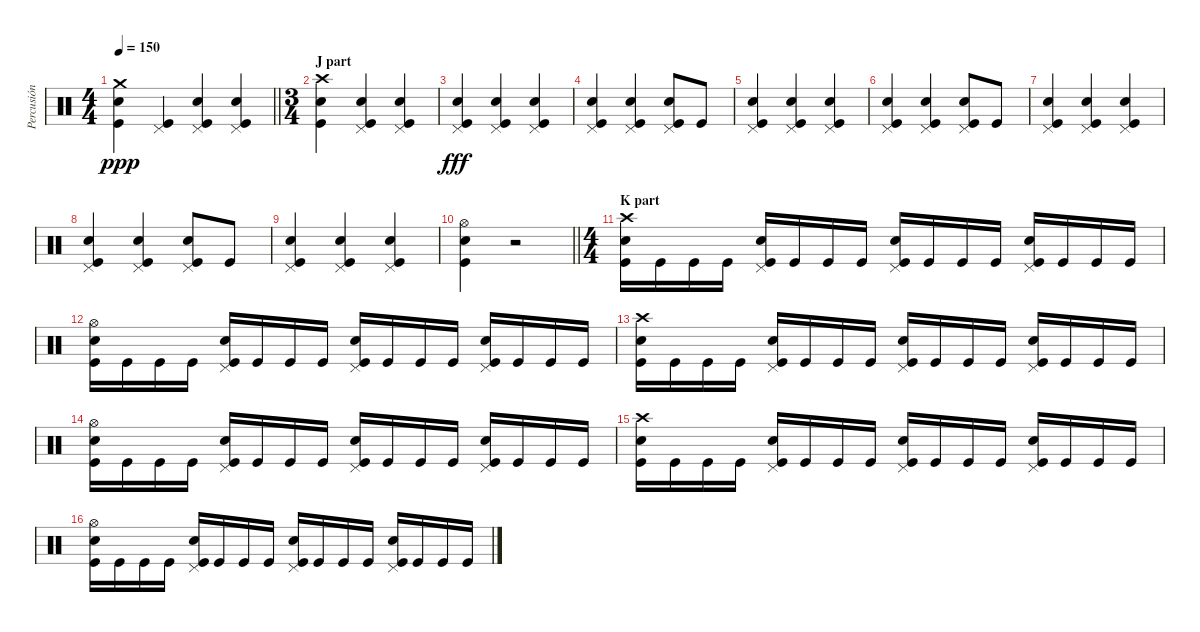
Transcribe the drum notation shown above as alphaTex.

\track ("Percusión" "Percusión") {instrument percussion}
\staff {score}
\articulation defaults
\ts (4 4)
\tempo 150
\clef neutral
\barLineRight lightlight
\ks c
("Crash medium (hit)" "Electric Snare (hit)" "Kick (hit)").4{dy ppp} ("Pedal Hi-Hat (hit)" "Kick (hit)").4 ("Pedal Hi-Hat (hit)" "Electric Snare (hit)" "Kick (hit)").4 ("Pedal Hi-Hat (hit)" "Electric Snare (hit)" "Kick (hit)").4 |
\ts (3 4)
\section ("" "J part")
("Crash high (hit)" "Electric Snare (hit)" "Kick (hit)").4 ("Pedal Hi-Hat (hit)" "Electric Snare (hit)" "Kick (hit)").4 ("Pedal Hi-Hat (hit)" "Electric Snare (hit)" "Kick (hit)").4 |
("Pedal Hi-Hat (hit)" "Electric Snare (hit)" "Kick (hit)").4{dy fff} ("Pedal Hi-Hat (hit)" "Electric Snare (hit)" "Kick (hit)").4 ("Pedal Hi-Hat (hit)" "Electric Snare (hit)" "Kick (hit)").4 |
("Pedal Hi-Hat (hit)" "Electric Snare (hit)" "Kick (hit)").4 ("Pedal Hi-Hat (hit)" "Electric Snare (hit)" "Kick (hit)").4 ("Pedal Hi-Hat (hit)" "Electric Snare (hit)" "Kick (hit)").8 "Kick (hit)".8 |
("Pedal Hi-Hat (hit)" "Electric Snare (hit)" "Kick (hit)").4 ("Pedal Hi-Hat (hit)" "Electric Snare (hit)" "Kick (hit)").4 ("Pedal Hi-Hat (hit)" "Electric Snare (hit)" "Kick (hit)").4 |
("Pedal Hi-Hat (hit)" "Electric Snare (hit)" "Kick (hit)").4 ("Pedal Hi-Hat (hit)" "Electric Snare (hit)" "Kick (hit)").4 ("Pedal Hi-Hat (hit)" "Electric Snare (hit)" "Kick (hit)").8 "Kick (hit)".8 |
("Pedal Hi-Hat (hit)" "Electric Snare (hit)" "Kick (hit)").4 ("Pedal Hi-Hat (hit)" "Electric Snare (hit)" "Kick (hit)").4 ("Pedal Hi-Hat (hit)" "Electric Snare (hit)" "Kick (hit)").4 |
("Pedal Hi-Hat (hit)" "Electric Snare (hit)" "Kick (hit)").4 ("Pedal Hi-Hat (hit)" "Electric Snare (hit)" "Kick (hit)").4 ("Pedal Hi-Hat (hit)" "Electric Snare (hit)" "Kick (hit)").8 "Kick (hit)".8 |
("Pedal Hi-Hat (hit)" "Electric Snare (hit)" "Kick (hit)").4 ("Pedal Hi-Hat (hit)" "Electric Snare (hit)" "Kick (hit)").4 ("Pedal Hi-Hat (hit)" "Electric Snare (hit)" "Kick (hit)").4 |
\barLineRight lightlight
("Hi-Hat (open)" "Electric Snare (hit)" "Kick (hit)").4 r.2{volume 0} |
\ts (4 4)
\section ("" "K part")
("Crash high (hit)" "Electric Snare (hit)" "Kick (hit)").16{volume 16} "Kick (hit)".16 "Kick (hit)".16 "Kick (hit)".16 ("Pedal Hi-Hat (hit)" "Electric Snare (hit)" "Kick (hit)").16 "Kick (hit)".16 "Kick (hit)".16 "Kick (hit)".16 ("Pedal Hi-Hat (hit)" "Electric Snare (hit)" "Kick (hit)").16 "Kick (hit)".16 "Kick (hit)".16 "Kick (hit)".16 ("Pedal Hi-Hat (hit)" "Electric Snare (hit)" "Kick (hit)").16 "Kick (hit)".16 "Kick (hit)".16 "Kick (hit)".16 |
("Hi-Hat (open)" "Electric Snare (hit)" "Kick (hit)").16 "Kick (hit)".16 "Kick (hit)".16 "Kick (hit)".16 ("Pedal Hi-Hat (hit)" "Electric Snare (hit)" "Kick (hit)").16 "Kick (hit)".16 "Kick (hit)".16 "Kick (hit)".16 ("Pedal Hi-Hat (hit)" "Electric Snare (hit)" "Kick (hit)").16 "Kick (hit)".16 "Kick (hit)".16 "Kick (hit)".16 ("Pedal Hi-Hat (hit)" "Electric Snare (hit)" "Kick (hit)").16 "Kick (hit)".16 "Kick (hit)".16 "Kick (hit)".16 |
("Crash high (hit)" "Electric Snare (hit)" "Kick (hit)").16 "Kick (hit)".16 "Kick (hit)".16 "Kick (hit)".16 ("Pedal Hi-Hat (hit)" "Electric Snare (hit)" "Kick (hit)").16 "Kick (hit)".16 "Kick (hit)".16 "Kick (hit)".16 ("Pedal Hi-Hat (hit)" "Electric Snare (hit)" "Kick (hit)").16 "Kick (hit)".16 "Kick (hit)".16 "Kick (hit)".16 ("Pedal Hi-Hat (hit)" "Electric Snare (hit)" "Kick (hit)").16 "Kick (hit)".16 "Kick (hit)".16 "Kick (hit)".16 |
("Hi-Hat (open)" "Electric Snare (hit)" "Kick (hit)").16 "Kick (hit)".16 "Kick (hit)".16 "Kick (hit)".16 ("Pedal Hi-Hat (hit)" "Electric Snare (hit)" "Kick (hit)").16 "Kick (hit)".16 "Kick (hit)".16 "Kick (hit)".16 ("Pedal Hi-Hat (hit)" "Electric Snare (hit)" "Kick (hit)").16 "Kick (hit)".16 "Kick (hit)".16 "Kick (hit)".16 ("Pedal Hi-Hat (hit)" "Electric Snare (hit)" "Kick (hit)").16 "Kick (hit)".16 "Kick (hit)".16 "Kick (hit)".16 |
("Crash high (hit)" "Electric Snare (hit)" "Kick (hit)").16 "Kick (hit)".16 "Kick (hit)".16 "Kick (hit)".16 ("Pedal Hi-Hat (hit)" "Electric Snare (hit)" "Kick (hit)").16 "Kick (hit)".16 "Kick (hit)".16 "Kick (hit)".16 ("Pedal Hi-Hat (hit)" "Electric Snare (hit)" "Kick (hit)").16 "Kick (hit)".16 "Kick (hit)".16 "Kick (hit)".16 ("Pedal Hi-Hat (hit)" "Electric Snare (hit)" "Kick (hit)").16 "Kick (hit)".16 "Kick (hit)".16 "Kick (hit)".16 |
("Hi-Hat (open)" "Electric Snare (hit)" "Kick (hit)").16 "Kick (hit)".16 "Kick (hit)".16 "Kick (hit)".16 ("Pedal Hi-Hat (hit)" "Electric Snare (hit)" "Kick (hit)").16 "Kick (hit)".16 "Kick (hit)".16 "Kick (hit)".16 ("Pedal Hi-Hat (hit)" "Electric Snare (hit)" "Kick (hit)").16 "Kick (hit)".16 "Kick (hit)".16 "Kick (hit)".16 ("Pedal Hi-Hat (hit)" "Electric Snare (hit)" "Kick (hit)").16 "Kick (hit)".16 "Kick (hit)".16 "Kick (hit)".16
